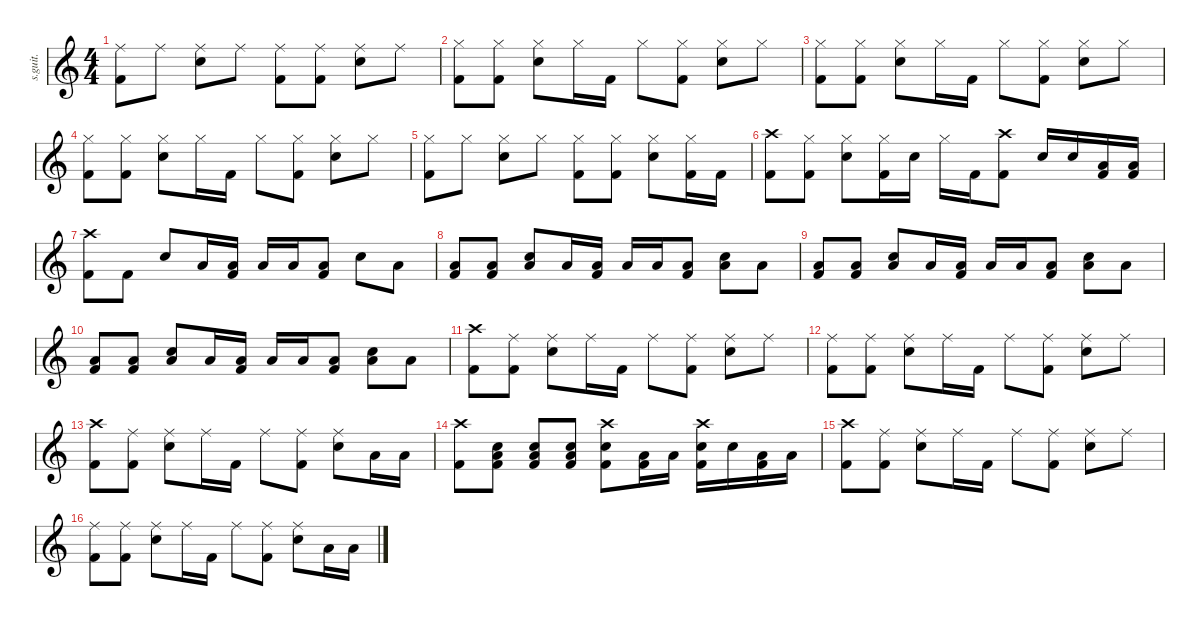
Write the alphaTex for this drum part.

\defaultSystemsLayout 4
\hideDynamics
\bracketExtendMode nobrackets
\track ("" "s.guit.") {instrument percussion}
\staff {score}
\articulation defaults
\ts (4 4)
\tempo (82 hide)
\clef g2
\ks c
("Ride (middle)" "Kick (hit) 2").8{dy f} "Ride (middle)".8 ("Ride (middle)" "Snare (hit) 2").8 "Ride (middle)".8 ("Ride (middle)" "Kick (hit) 2").8 ("Ride (middle)" "Kick (hit) 2").8 ("Ride (middle)" "Snare (hit) 2").8 "Ride (middle)".8 |
("Hi-Hat (closed)" "Kick (hit) 2").8 ("Hi-Hat (closed)" "Kick (hit) 2").8 ("Hi-Hat (closed)" "Snare (hit) 2").8 "Hi-Hat (closed)".16 "Kick (hit) 2".16 "Hi-Hat (closed)".8 ("Hi-Hat (closed)" "Kick (hit) 2").8 ("Hi-Hat (closed)" "Snare (hit) 2").8 "Hi-Hat (closed)".8 |
("Hi-Hat (closed)" "Kick (hit) 2").8 ("Hi-Hat (closed)" "Kick (hit) 2").8 ("Hi-Hat (closed)" "Snare (hit) 2").8 "Hi-Hat (closed)".16 "Kick (hit) 2".16 "Hi-Hat (closed)".8 ("Hi-Hat (closed)" "Kick (hit) 2").8 ("Hi-Hat (closed)" "Snare (hit) 2").8 "Hi-Hat (closed)".8 |
("Hi-Hat (closed)" "Kick (hit) 2").8 ("Hi-Hat (closed)" "Kick (hit) 2").8 ("Hi-Hat (closed)" "Snare (hit) 2").8 "Hi-Hat (closed)".16 "Kick (hit) 2".16 "Hi-Hat (closed)".8 ("Hi-Hat (closed)" "Kick (hit) 2").8 ("Hi-Hat (closed)" "Snare (hit) 2").8 "Hi-Hat (closed)".8 |
("Hi-Hat (closed)" "Kick (hit) 2").8 "Hi-Hat (closed)".8 ("Hi-Hat (closed)" "Snare (hit) 2").8 "Hi-Hat (closed)".8 ("Hi-Hat (closed)" "Kick (hit) 2").8 ("Hi-Hat (closed)" "Kick (hit) 2").8 ("Hi-Hat (closed)" "Snare (hit) 2").8 ("Hi-Hat (closed)" "Kick (hit) 2").16 "Kick (hit) 2".16 |
("Crash high (hit)" "Kick (hit) 2").8 ("Hi-Hat (closed)" "Kick (hit) 2").8 ("Hi-Hat (closed)" "Snare (hit) 2").8 ("Hi-Hat (closed)" "Kick (hit) 2").16 "Snare (hit) 2".16 "Hi-Hat (closed)".16 "Kick (hit) 2".16 ("Crash high (hit)" "Kick (hit) 2").8 "Snare (hit) 2".16 "Snare (hit) 2".16 ("Low Tom (hit)" "Kick (hit) 2").16 ("Low Tom (hit)" "Kick (hit) 2").16 |
("Crash high (hit)" "Kick (hit) 2").8 "Kick (hit) 2".8 "Snare (hit) 2".8 "Low Tom (hit)".16 ("Low Tom (hit)" "Kick (hit) 2").16 "Low Tom (hit)".16 "Low Tom (hit)".16 ("Low Tom (hit)" "Kick (hit) 2").8 "Snare (hit) 2".8 "Low Tom (hit)".8 |
("Low Tom (hit)" "Kick (hit) 2").8 ("Low Tom (hit)" "Kick (hit) 2").8 ("Snare (hit) 2" "Low Tom (hit)").8 "Low Tom (hit)".16 ("Low Tom (hit)" "Kick (hit) 2").16 "Low Tom (hit)".16 "Low Tom (hit)".16 ("Low Tom (hit)" "Kick (hit) 2").8 ("Snare (hit) 2" "Low Tom (hit)").8 "Low Tom (hit)".8 |
("Low Tom (hit)" "Kick (hit) 2").8 ("Low Tom (hit)" "Kick (hit) 2").8 ("Snare (hit) 2" "Low Tom (hit)").8 "Low Tom (hit)".16 ("Low Tom (hit)" "Kick (hit) 2").16 "Low Tom (hit)".16 "Low Tom (hit)".16 ("Low Tom (hit)" "Kick (hit) 2").8 ("Snare (hit) 2" "Low Tom (hit)").8 "Low Tom (hit)".8 |
("Low Tom (hit)" "Kick (hit) 2").8 ("Low Tom (hit)" "Kick (hit) 2").8 ("Snare (hit) 2" "Low Tom (hit)").8 "Low Tom (hit)".16 ("Low Tom (hit)" "Kick (hit) 2").16 "Low Tom (hit)".16 "Low Tom (hit)".16 ("Low Tom (hit)" "Kick (hit) 2").8 ("Snare (hit) 2" "Low Tom (hit)").8 "Low Tom (hit)".8 |
("Crash high (hit)" "Kick (hit) 2").8 ("Ride (middle)" "Kick (hit) 2").8 ("Ride (middle)" "Snare (hit) 2").8 "Ride (middle)".16 "Kick (hit) 2".16 "Ride (middle)".8 ("Ride (middle)" "Kick (hit) 2").8 ("Ride (middle)" "Snare (hit) 2").8 "Ride (middle)".8 |
("Ride (middle)" "Kick (hit) 2").8 ("Ride (middle)" "Kick (hit) 2").8 ("Ride (middle)" "Snare (hit) 2").8 "Ride (middle)".16 "Kick (hit) 2".16 "Ride (middle)".8 ("Ride (middle)" "Kick (hit) 2").8 ("Ride (middle)" "Snare (hit) 2").8 "Ride (middle)".8 |
("Crash high (hit)" "Kick (hit) 2").8 ("Ride (middle)" "Kick (hit) 2").8 ("Ride (middle)" "Snare (hit) 2").8 "Ride (middle)".16 "Kick (hit) 2".16 "Ride (middle)".8 ("Ride (middle)" "Kick (hit) 2").8 ("Ride (middle)" "Snare (hit) 2").8 "Low Tom (hit)".16 "Low Tom (hit)".16 |
("Crash high (hit)" "Kick (hit) 2").8 ("Snare (hit) 2" "Low Floor Tom (hit)" "Kick (hit) 2").8 ("Snare (hit) 2" "Low Floor Tom (hit)" "Kick (hit) 2").8 ("Snare (hit) 2" "Low Floor Tom (hit)" "Kick (hit) 2").8 ("Crash high (hit)" "Snare (hit) 2" "Kick (hit) 2").8 ("Low Tom (hit)" "Kick (hit) 2").16 "Low Tom (hit)".16 ("Crash high (hit)" "Snare (hit) 2" "Kick (hit) 2").16 "Snare (hit) 2".16 ("Low Tom (hit)" "Kick (hit) 2").16 "Low Tom (hit)".16 |
("Crash high (hit)" "Kick (hit) 2").8 ("Ride (middle)" "Kick (hit) 2").8 ("Ride (middle)" "Snare (hit) 2").8 "Ride (middle)".16 "Kick (hit) 2".16 "Ride (middle)".8 ("Ride (middle)" "Kick (hit) 2").8 ("Ride (middle)" "Snare (hit) 2").8 "Ride (middle)".8 |
("Ride (middle)" "Kick (hit) 2").8 ("Ride (middle)" "Kick (hit) 2").8 ("Ride (middle)" "Snare (hit) 2").8 "Ride (middle)".16 "Kick (hit) 2".16 "Ride (middle)".8 ("Ride (middle)" "Kick (hit) 2").8 ("Ride (middle)" "Snare (hit) 2").8 "Low Tom (hit)".16 "Low Tom (hit)".16
